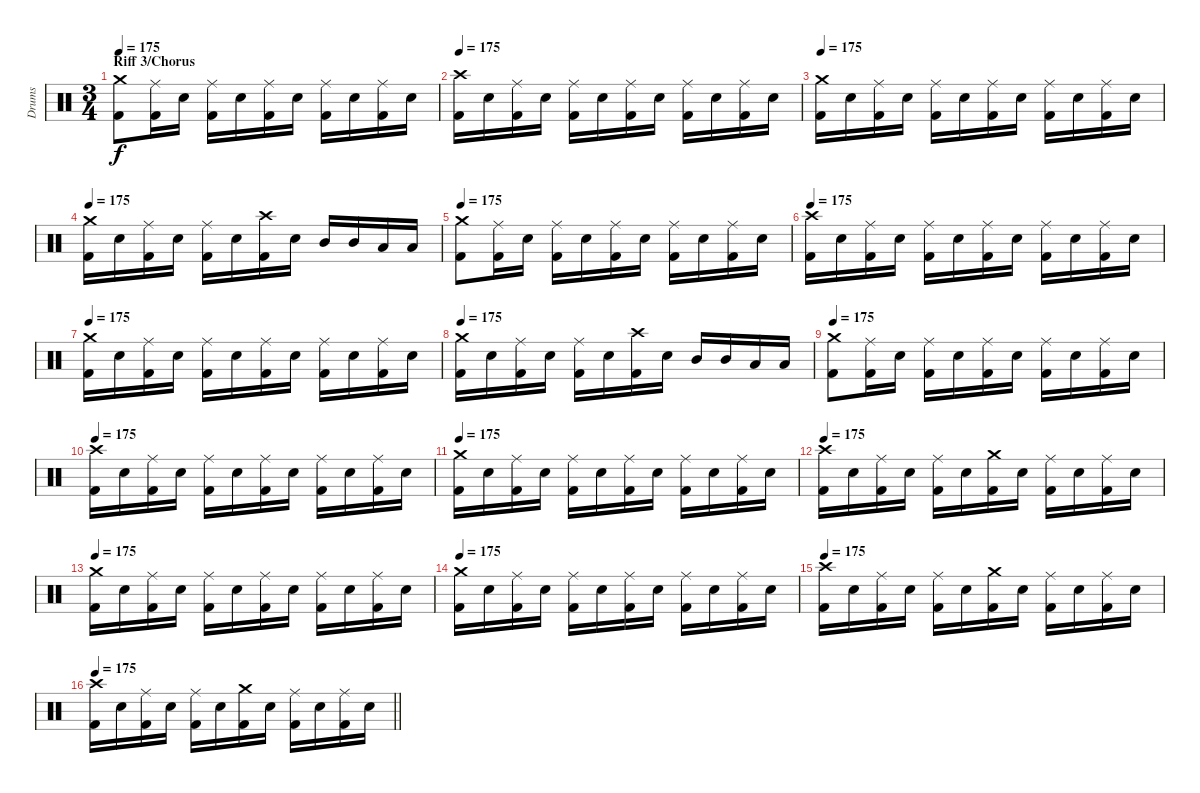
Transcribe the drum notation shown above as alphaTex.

\track ("Drums" "Drums") {instrument percussion}
\staff {score}
\articulation defaults
\ts (3 4)
\section ("" "Riff 3/Chorus")
\tempo 175
\clef neutral
\ks c
("Crash medium (hit)" "Kick (hit) 2").8{dy f} ("Ride (middle)" "Kick (hit) 2").16 "Electric Snare (hit)".16 ("Ride (middle)" "Kick (hit) 2").16 "Electric Snare (hit)".16 ("Ride (middle)" "Kick (hit) 2").16 "Electric Snare (hit)".16 ("Ride (middle)" "Kick (hit) 2").16 "Electric Snare (hit)".16 ("Ride (middle)" "Kick (hit) 2").16 "Electric Snare (hit)".16 |
\tempo 175
("Crash high (hit)" "Kick (hit) 2").16 "Electric Snare (hit)".16 ("Ride (middle)" "Kick (hit) 2").16 "Electric Snare (hit)".16 ("Ride (middle)" "Kick (hit) 2").16 "Electric Snare (hit)".16 ("Ride (middle)" "Kick (hit) 2").16 "Electric Snare (hit)".16 ("Ride (middle)" "Kick (hit) 2").16 "Electric Snare (hit)".16 ("Ride (middle)" "Kick (hit) 2").16 "Electric Snare (hit)".16 |
\tempo 175
("Crash medium (hit)" "Kick (hit) 2").16 "Electric Snare (hit)".16 ("Ride (middle)" "Kick (hit) 2").16 "Electric Snare (hit)".16 ("Ride (middle)" "Kick (hit) 2").16 "Electric Snare (hit)".16 ("Ride (middle)" "Kick (hit) 2").16 "Electric Snare (hit)".16 ("Ride (middle)" "Kick (hit) 2").16 "Electric Snare (hit)".16 ("Ride (middle)" "Kick (hit) 2").16 "Electric Snare (hit)".16 |
\tempo 175
("Crash medium (hit)" "Kick (hit) 2").16 "Electric Snare (hit)".16 ("Ride (middle)" "Kick (hit) 2").16 "Electric Snare (hit)".16 ("Ride (middle)" "Kick (hit) 2").16 "Electric Snare (hit)".16 ("Crash high (hit)" "Kick (hit) 2").16 "Electric Snare (hit)".16 "Mid Tom (hit)".16 "Mid Tom (hit)".16 "Low Tom (hit)".16 "Low Tom (hit)".16 |
\tempo 175
("Crash medium (hit)" "Kick (hit) 2").8 ("Ride (middle)" "Kick (hit) 2").16 "Electric Snare (hit)".16 ("Ride (middle)" "Kick (hit) 2").16 "Electric Snare (hit)".16 ("Ride (middle)" "Kick (hit) 2").16 "Electric Snare (hit)".16 ("Ride (middle)" "Kick (hit) 2").16 "Electric Snare (hit)".16 ("Ride (middle)" "Kick (hit) 2").16 "Electric Snare (hit)".16 |
\tempo 175
("Crash high (hit)" "Kick (hit) 2").16 "Electric Snare (hit)".16 ("Ride (middle)" "Kick (hit) 2").16 "Electric Snare (hit)".16 ("Ride (middle)" "Kick (hit) 2").16 "Electric Snare (hit)".16 ("Ride (middle)" "Kick (hit) 2").16 "Electric Snare (hit)".16 ("Ride (middle)" "Kick (hit) 2").16 "Electric Snare (hit)".16 ("Ride (middle)" "Kick (hit) 2").16 "Electric Snare (hit)".16 |
\tempo 175
("Crash medium (hit)" "Kick (hit) 2").16 "Electric Snare (hit)".16 ("Ride (middle)" "Kick (hit) 2").16 "Electric Snare (hit)".16 ("Ride (middle)" "Kick (hit) 2").16 "Electric Snare (hit)".16 ("Ride (middle)" "Kick (hit) 2").16 "Electric Snare (hit)".16 ("Ride (middle)" "Kick (hit) 2").16 "Electric Snare (hit)".16 ("Ride (middle)" "Kick (hit) 2").16 "Electric Snare (hit)".16 |
\tempo 175
("Crash medium (hit)" "Kick (hit) 2").16 "Electric Snare (hit)".16 ("Ride (middle)" "Kick (hit) 2").16 "Electric Snare (hit)".16 ("Ride (middle)" "Kick (hit) 2").16 "Electric Snare (hit)".16 ("Crash high (hit)" "Kick (hit) 2").16 "Electric Snare (hit)".16 "Mid Tom (hit)".16 "Mid Tom (hit)".16 "Low Tom (hit)".16 "Low Tom (hit)".16 |
\tempo 175
("Crash medium (hit)" "Kick (hit) 2").8 ("Ride (middle)" "Kick (hit) 2").16 "Electric Snare (hit)".16 ("Ride (middle)" "Kick (hit) 2").16 "Electric Snare (hit)".16 ("Ride (middle)" "Kick (hit) 2").16 "Electric Snare (hit)".16 ("Ride (middle)" "Kick (hit) 2").16 "Electric Snare (hit)".16 ("Ride (middle)" "Kick (hit) 2").16 "Electric Snare (hit)".16 |
\tempo 175
("Crash high (hit)" "Kick (hit) 2").16 "Electric Snare (hit)".16 ("Ride (middle)" "Kick (hit) 2").16 "Electric Snare (hit)".16 ("Ride (middle)" "Kick (hit) 2").16 "Electric Snare (hit)".16 ("Ride (middle)" "Kick (hit) 2").16 "Electric Snare (hit)".16 ("Ride (middle)" "Kick (hit) 2").16 "Electric Snare (hit)".16 ("Ride (middle)" "Kick (hit) 2").16 "Electric Snare (hit)".16 |
\tempo 175
("Crash medium (hit)" "Kick (hit) 2").16 "Electric Snare (hit)".16 ("Ride (middle)" "Kick (hit) 2").16 "Electric Snare (hit)".16 ("Ride (middle)" "Kick (hit) 2").16 "Electric Snare (hit)".16 ("Ride (middle)" "Kick (hit) 2").16 "Electric Snare (hit)".16 ("Ride (middle)" "Kick (hit) 2").16 "Electric Snare (hit)".16 ("Ride (middle)" "Kick (hit) 2").16 "Electric Snare (hit)".16 |
\tempo 175
("Crash high (hit)" "Kick (hit) 2").16 "Electric Snare (hit)".16 ("Ride (middle)" "Kick (hit) 2").16 "Electric Snare (hit)".16 ("Ride (middle)" "Kick (hit) 2").16 "Electric Snare (hit)".16 ("Crash medium (hit)" "Kick (hit) 2").16 "Electric Snare (hit)".16 ("Ride (middle)" "Kick (hit) 2").16 "Electric Snare (hit)".16 ("Ride (middle)" "Kick (hit) 2").16 "Electric Snare (hit)".16 |
\tempo 175
("Crash medium (hit)" "Kick (hit) 2").16 "Electric Snare (hit)".16 ("Ride (middle)" "Kick (hit) 2").16 "Electric Snare (hit)".16 ("Ride (middle)" "Kick (hit) 2").16 "Electric Snare (hit)".16 ("Ride (middle)" "Kick (hit) 2").16 "Electric Snare (hit)".16 ("Ride (middle)" "Kick (hit) 2").16 "Electric Snare (hit)".16 ("Ride (middle)" "Kick (hit) 2").16 "Electric Snare (hit)".16 |
\tempo 175
("Crash medium (hit)" "Kick (hit) 2").16 "Electric Snare (hit)".16 ("Ride (middle)" "Kick (hit) 2").16 "Electric Snare (hit)".16 ("Ride (middle)" "Kick (hit) 2").16 "Electric Snare (hit)".16 ("Ride (middle)" "Kick (hit) 2").16 "Electric Snare (hit)".16 ("Ride (middle)" "Kick (hit) 2").16 "Electric Snare (hit)".16 ("Ride (middle)" "Kick (hit) 2").16 "Electric Snare (hit)".16 |
\tempo 175
("Crash high (hit)" "Kick (hit) 2").16 "Electric Snare (hit)".16 ("Ride (middle)" "Kick (hit) 2").16 "Electric Snare (hit)".16 ("Ride (middle)" "Kick (hit) 2").16 "Electric Snare (hit)".16 ("Crash medium (hit)" "Kick (hit) 2").16 "Electric Snare (hit)".16 ("Ride (middle)" "Kick (hit) 2").16 "Electric Snare (hit)".16 ("Ride (middle)" "Kick (hit) 2").16 "Electric Snare (hit)".16 |
\tempo 175
\barLineRight lightlight
("Crash high (hit)" "Kick (hit) 2").16 "Electric Snare (hit)".16 ("Ride (middle)" "Kick (hit) 2").16 "Electric Snare (hit)".16 ("Ride (middle)" "Kick (hit) 2").16 "Electric Snare (hit)".16 ("Crash medium (hit)" "Kick (hit) 2").16 "Electric Snare (hit)".16 ("Ride (middle)" "Kick (hit) 2").16 "Electric Snare (hit)".16 ("Ride (middle)" "Kick (hit) 2").16 "Electric Snare (hit)".16
